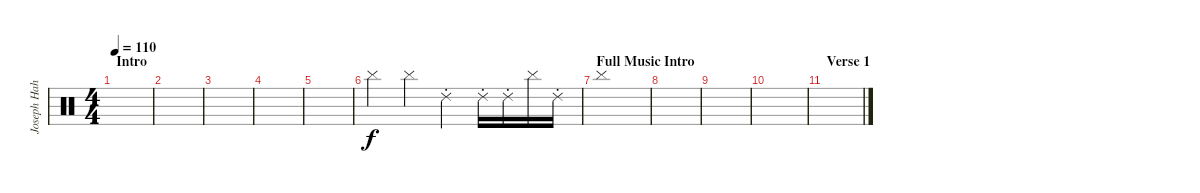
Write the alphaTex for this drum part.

\track ("Joseph Hahn (Turntables)" "Joseph Hah") {instrument percussion}
\staff {score}
\articulation defaults
\ts (4 4)
\section ("" "Intro")
\tempo 110
\clef neutral
\ks c
|
|
|
|
|
"Cymbal (hit)".4 "Cymbal (hit)".4 "Ride (choke) 2".4 "Ride (choke) 2".16 "Ride (choke) 2".16 "Cymbal (hit)".16 "Ride (choke) 2".16 |
\section ("" "Full Music Intro")
"Cymbal (hit)".1 |
|
|
|
\section ("" "Verse 1")
